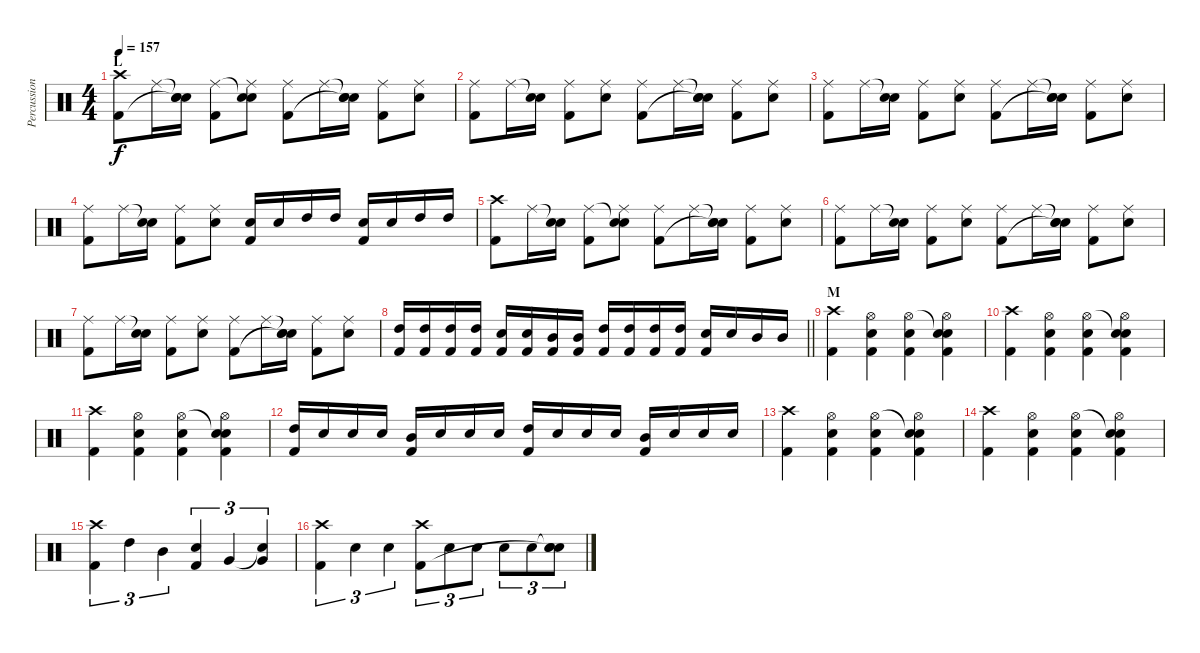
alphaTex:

\track ("Percussion" "Percussion") {instrument percussion}
\staff {score}
\articulation defaults
\ts (4 4)
\section ("" "L")
\tempo 157
\clef neutral
\ks c
("Crash high (hit)" "Kick (hit) 2").8{dy f} "Ride (middle)".16 ("Snare (hit)"{t} "Snare (hit)"{t} "Electric Snare (hit)").16 ("Ride (middle)" "Kick (hit) 2").8 ("Snare (hit)"{t} "Ride (middle)" "Electric Snare (hit)").8 ("Ride (middle)" "Kick (hit) 2").8 "Ride (middle)".16 ("Snare (hit)"{t} "Snare (hit)"{t} "Electric Snare (hit)").16 ("Ride (middle)" "Kick (hit) 2").8 ("Ride (middle)" "Electric Snare (hit)").8 |
("Ride (middle)" "Kick (hit) 2").8 "Ride (middle)".16 ("Snare (hit)"{t} "Electric Snare (hit)").16 ("Ride (middle)" "Kick (hit) 2").8 ("Ride (middle)" "Electric Snare (hit)").8 ("Ride (middle)" "Kick (hit) 2").8 "Ride (middle)".16 ("Snare (hit)"{t} "Snare (hit)"{t} "Electric Snare (hit)").16 ("Ride (middle)" "Kick (hit) 2").8 ("Ride (middle)" "Electric Snare (hit)").8 |
("Ride (middle)" "Kick (hit) 2").8 "Ride (middle)".16 ("Snare (hit)"{t} "Electric Snare (hit)").16 ("Ride (middle)" "Kick (hit) 2").8 ("Ride (middle)" "Electric Snare (hit)").8 ("Ride (middle)" "Kick (hit) 2").8 "Ride (middle)".16 ("Snare (hit)"{t} "Snare (hit)"{t} "Electric Snare (hit)").16 ("Ride (middle)" "Kick (hit) 2").8 ("Ride (middle)" "Electric Snare (hit)").8 |
("Ride (middle)" "Kick (hit) 2").8 "Ride (middle)".16 ("Snare (hit)"{t} "Electric Snare (hit)").16 ("Ride (middle)" "Kick (hit) 2").8 ("Ride (middle)" "Electric Snare (hit)").8 ("Electric Snare (hit)" "Kick (hit) 2").16 "Electric Snare (hit)".16 "High Tom (hit)".16 "High Tom (hit)".16 ("Electric Snare (hit)" "Kick (hit) 2").16 "Electric Snare (hit)".16 "High Tom (hit)".16 "High Tom (hit)".16 |
("Crash high (hit)" "Kick (hit) 2").8 "Ride (middle)".16 ("Snare (hit)"{t} "Electric Snare (hit)").16 ("Ride (middle)" "Kick (hit) 2").8 ("Snare (hit)"{t} "Ride (middle)" "Electric Snare (hit)").8 ("Ride (middle)" "Kick (hit) 2").8 "Ride (middle)".16 ("Snare (hit)"{t} "Snare (hit)"{t} "Electric Snare (hit)").16 ("Ride (middle)" "Kick (hit) 2").8 ("Ride (middle)" "Electric Snare (hit)").8 |
("Ride (middle)" "Kick (hit) 2").8 "Ride (middle)".16 ("Snare (hit)"{t} "Electric Snare (hit)").16 ("Ride (middle)" "Kick (hit) 2").8 ("Ride (middle)" "Electric Snare (hit)").8 ("Ride (middle)" "Kick (hit) 2").8 "Ride (middle)".16 ("Snare (hit)"{t} "Snare (hit)"{t} "Electric Snare (hit)").16 ("Ride (middle)" "Kick (hit) 2").8 ("Ride (middle)" "Electric Snare (hit)").8 |
("Ride (middle)" "Kick (hit) 2").8 "Ride (middle)".16 ("Snare (hit)"{t} "Electric Snare (hit)").16 ("Ride (middle)" "Kick (hit) 2").8 ("Ride (middle)" "Electric Snare (hit)").8 ("Ride (middle)" "Kick (hit) 2").8 "Ride (middle)".16 ("Snare (hit)"{t} "Snare (hit)"{t} "Electric Snare (hit)").16 ("Ride (middle)" "Kick (hit) 2").8 ("Ride (middle)" "Electric Snare (hit)").8 |
\barLineRight lightlight
("High Tom (hit)" "Kick (hit) 2").16 ("High Tom (hit)" "Kick (hit) 2").16 ("High Tom (hit)" "Kick (hit) 2").16 ("High Tom (hit)" "Kick (hit) 2").16 ("Electric Snare (hit)" "Kick (hit) 2").16 ("Electric Snare (hit)" "Kick (hit) 2").16 ("Mid Tom (hit)" "Kick (hit) 2").16 ("Mid Tom (hit)" "Kick (hit) 2").16 ("High Tom (hit)" "Kick (hit) 2").16 ("High Tom (hit)" "Kick (hit) 2").16 ("High Tom (hit)" "Kick (hit) 2").16 ("High Tom (hit)" "Kick (hit) 2").16 ("Electric Snare (hit)" "Kick (hit) 2").16 "Electric Snare (hit)".16 "Mid Tom (hit)".16 "Mid Tom (hit)".16 |
\section ("" "M")
("Crash high (hit)" "Kick (hit) 2").4 ("Hi-Hat (open)" "Electric Snare (hit)" "Kick (hit) 2").4 ("Hi-Hat (open)" "Electric Snare (hit)" "Kick (hit) 2").4 ("Snare (hit)"{t} "Hi-Hat (open)" "Electric Snare (hit)" "Kick (hit) 2").4 |
("Crash high (hit)" "Kick (hit) 2").4 ("Hi-Hat (open)" "Electric Snare (hit)" "Kick (hit) 2").4 ("Hi-Hat (open)" "Electric Snare (hit)" "Kick (hit) 2").4 ("Snare (hit)"{t} "Hi-Hat (open)" "Electric Snare (hit)" "Kick (hit) 2").4 |
("Crash high (hit)" "Kick (hit) 2").4 ("Hi-Hat (open)" "Electric Snare (hit)" "Kick (hit) 2").4 ("Hi-Hat (open)" "Electric Snare (hit)" "Kick (hit) 2").4 ("Snare (hit)"{t} "Hi-Hat (open)" "Electric Snare (hit)" "Kick (hit) 2").4 |
("High Tom (hit)" "Kick (hit) 2").16 "Electric Snare (hit)".16 "Electric Snare (hit)".16 "Electric Snare (hit)".16 ("Mid Tom (hit)" "Kick (hit) 2").16 "Electric Snare (hit)".16 "Electric Snare (hit)".16 "Electric Snare (hit)".16 ("High Tom (hit)" "Kick (hit) 2").16 "Electric Snare (hit)".16 "Electric Snare (hit)".16 "Electric Snare (hit)".16 ("Mid Tom (hit)" "Kick (hit) 2").16 "Electric Snare (hit)".16 "Electric Snare (hit)".16 "Electric Snare (hit)".16 |
("Crash high (hit)" "Kick (hit) 2").4 ("Hi-Hat (open)" "Electric Snare (hit)" "Kick (hit) 2").4 ("Hi-Hat (open)" "Electric Snare (hit)" "Kick (hit) 2").4 ("Snare (hit)"{t} "Hi-Hat (open)" "Electric Snare (hit)" "Kick (hit) 2").4 |
("Crash high (hit)" "Kick (hit) 2").4 ("Hi-Hat (open)" "Electric Snare (hit)" "Kick (hit) 2").4 ("Hi-Hat (open)" "Electric Snare (hit)" "Kick (hit) 2").4 ("Snare (hit)"{t} "Hi-Hat (open)" "Electric Snare (hit)" "Kick (hit) 2").4 |
("Crash high (hit)" "Kick (hit) 2").4{tu (3 2)} "High Tom (hit)".4{tu (3 2)} "Mid Tom (hit)".4{tu (3 2)} ("Electric Snare (hit)" "Kick (hit) 2").4{tu (3 2)} "Very Low Tom (hit)".4{tu (3 2)} ("Snare (hit)"{t} "Very Low Tom (hit)").4{tu (3 2)} |
("Crash high (hit)" "Kick (hit) 2").4{tu (3 2)} "Electric Snare (hit)".4{tu (3 2)} "Electric Snare (hit)".4{tu (3 2)} ("Crash high (hit)" "Kick (hit) 2").8{tu (3 2)} "Electric Snare (hit)".8{tu (3 2)} "Electric Snare (hit)".8{tu (3 2)} "Electric Snare (hit)".8{tu (3 2)} "Electric Snare (hit)".8{tu (3 2)} ("Snare (hit)"{t} "Snare (hit)"{t} "Electric Snare (hit)").8{tu (3 2)}
